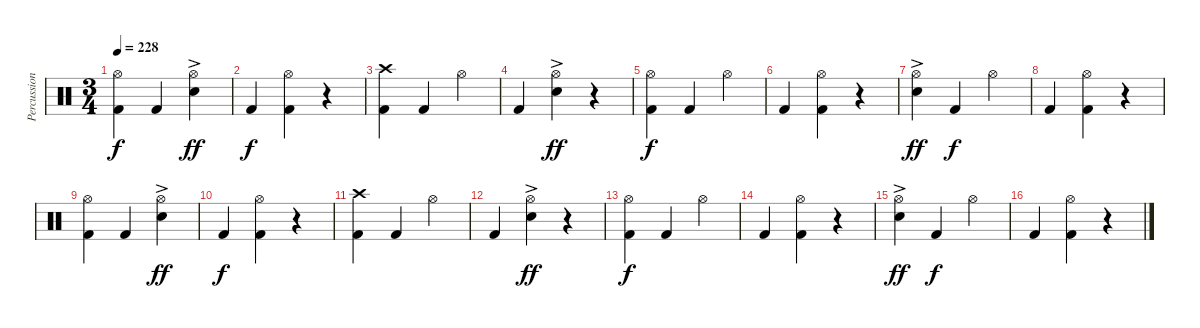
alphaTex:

\track ("Percussion" "Percussion") {instrument percussion}
\staff {score}
\articulation defaults
\ts (3 4)
\tempo 228
\clef neutral
\ks c
("Hi-Hat (open)" "Kick (hit) 2").4{dy f} "Kick (hit) 2".4 ("Hi-Hat (open)" "Electric Snare (hit)"{ac}).4{dy ff} |
"Kick (hit) 2".4{dy f} ("Hi-Hat (open)" "Kick (hit) 2").4 r.4 |
("Crash high (hit)" "Kick (hit) 2").4 "Kick (hit) 2".4 "Hi-Hat (open)".4 |
"Kick (hit) 2".4 ("Hi-Hat (open)" "Electric Snare (hit)"{ac}).4{dy ff} r.4 |
("Hi-Hat (open)" "Kick (hit) 2").4{dy f} "Kick (hit) 2".4 "Hi-Hat (open)".4 |
"Kick (hit) 2".4 ("Hi-Hat (open)" "Kick (hit) 2").4 r.4 |
("Hi-Hat (open)" "Electric Snare (hit)"{ac}).4{dy ff} "Kick (hit) 2".4{dy f} "Hi-Hat (open)".4 |
"Kick (hit) 2".4 ("Hi-Hat (open)" "Kick (hit) 2").4 r.4 |
("Hi-Hat (open)" "Kick (hit) 2").4 "Kick (hit) 2".4 ("Hi-Hat (open)" "Electric Snare (hit)"{ac}).4{dy ff} |
"Kick (hit) 2".4{dy f} ("Hi-Hat (open)" "Kick (hit) 2").4 r.4 |
("Crash high (hit)" "Kick (hit) 2").4 "Kick (hit) 2".4 "Hi-Hat (open)".4 |
"Kick (hit) 2".4 ("Hi-Hat (open)" "Electric Snare (hit)"{ac}).4{dy ff} r.4 |
("Hi-Hat (open)" "Kick (hit) 2").4{dy f} "Kick (hit) 2".4 "Hi-Hat (open)".4 |
"Kick (hit) 2".4 ("Hi-Hat (open)" "Kick (hit) 2").4 r.4 |
("Hi-Hat (open)" "Electric Snare (hit)"{ac}).4{dy ff} "Kick (hit) 2".4{dy f} "Hi-Hat (open)".4 |
"Kick (hit) 2".4 ("Hi-Hat (open)" "Kick (hit) 2").4 r.4
